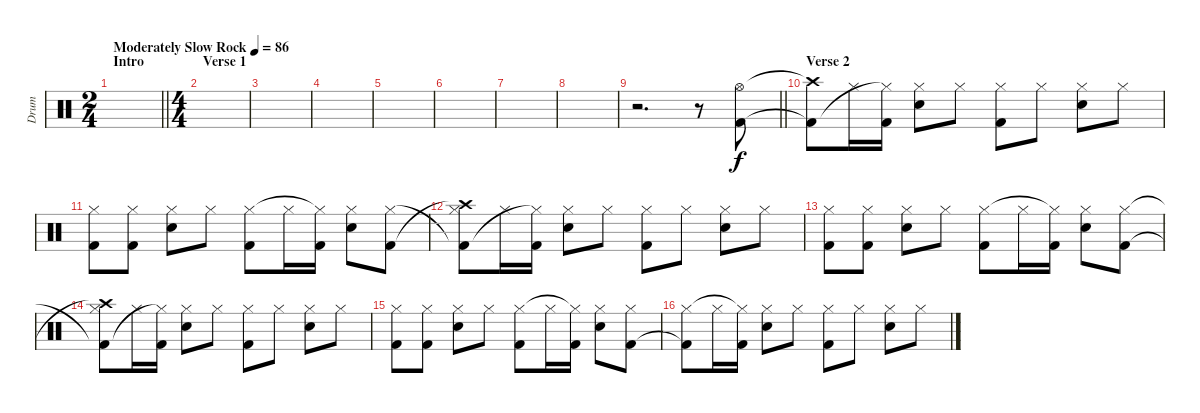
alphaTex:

\track ("Drum" "Drum") {instrument percussion}
\staff {score}
\articulation defaults
\ts (2 4)
\section ("" "Intro")
\tempo (86 "Moderately Slow Rock")
\clef neutral
\barLineRight lightlight
\ks c
|
\ts (4 4)
\section ("" "Verse 1")
|
|
|
|
|
|
|
\barLineRight lightlight
r.2{d} r.8 ("Hi-Hat (open)" "Kick (hit) 2").8 |
\section ("" "Verse 2")
("Crash high (hit)"{t} "Kick (hit) 2"{t}).8 "Hi-Hat (closed)".16 ("Kick (hit) 2" "Hi-Hat (closed)"{t}).16 ("Hi-Hat (closed)" "Snare (hit) 2").8 "Hi-Hat (closed)".8 ("Kick (hit) 2" "Hi-Hat (closed)").8 "Hi-Hat (closed)".8 ("Hi-Hat (closed)" "Snare (hit) 2").8 "Hi-Hat (closed)".8 |
("Kick (hit) 2" "Hi-Hat (closed)").8 ("Kick (hit) 2" "Hi-Hat (closed)").8 ("Hi-Hat (closed)" "Snare (hit) 2").8 "Hi-Hat (closed)".8 ("Kick (hit) 2" "Hi-Hat (closed)").8 "Hi-Hat (closed)".16 ("Kick (hit) 2" "Hi-Hat (closed)"{t}).16 ("Hi-Hat (closed)" "Snare (hit) 2").8 ("Kick (hit) 2" "Hi-Hat (closed)").8 |
("Crash high (hit)"{t} "Kick (hit) 2"{t} "Hi-Hat (closed)").8 "Hi-Hat (closed)".16 ("Kick (hit) 2" "Hi-Hat (closed)"{t}).16 ("Hi-Hat (closed)" "Snare (hit) 2").8 "Hi-Hat (closed)".8 ("Kick (hit) 2" "Hi-Hat (closed)").8 "Hi-Hat (closed)".8 ("Hi-Hat (closed)" "Snare (hit) 2").8 "Hi-Hat (closed)".8 |
("Kick (hit) 2" "Hi-Hat (closed)").8 ("Kick (hit) 2" "Hi-Hat (closed)").8 ("Hi-Hat (closed)" "Snare (hit) 2").8 "Hi-Hat (closed)".8 ("Kick (hit) 2" "Hi-Hat (closed)").8 "Hi-Hat (closed)".16 ("Kick (hit) 2" "Hi-Hat (closed)"{t}).16 ("Hi-Hat (closed)" "Snare (hit) 2").8 ("Kick (hit) 2" "Hi-Hat (closed)").8 |
("Crash high (hit)"{t} "Kick (hit) 2"{t} "Hi-Hat (closed)").8 "Hi-Hat (closed)".16 ("Kick (hit) 2" "Hi-Hat (closed)"{t}).16 ("Hi-Hat (closed)" "Snare (hit) 2").8 "Hi-Hat (closed)".8 ("Kick (hit) 2" "Hi-Hat (closed)").8 "Hi-Hat (closed)".8 ("Hi-Hat (closed)" "Snare (hit) 2").8 "Hi-Hat (closed)".8 |
("Kick (hit) 2" "Hi-Hat (closed)").8 ("Kick (hit) 2" "Hi-Hat (closed)").8 ("Hi-Hat (closed)" "Snare (hit) 2").8 "Hi-Hat (closed)".8 ("Kick (hit) 2" "Hi-Hat (closed)").8 "Hi-Hat (closed)".16 ("Kick (hit) 2" "Hi-Hat (closed)"{t}).16 ("Hi-Hat (closed)" "Snare (hit) 2").8 ("Kick (hit) 2" "Hi-Hat (closed)").8 |
("Kick (hit) 2"{t} "Hi-Hat (closed)").8 "Hi-Hat (closed)".16 ("Kick (hit) 2" "Hi-Hat (closed)"{t}).16 ("Hi-Hat (closed)" "Snare (hit) 2").8 "Hi-Hat (closed)".8 ("Kick (hit) 2" "Hi-Hat (closed)").8 "Hi-Hat (closed)".8 ("Hi-Hat (closed)" "Snare (hit) 2").8 "Hi-Hat (closed)".8
